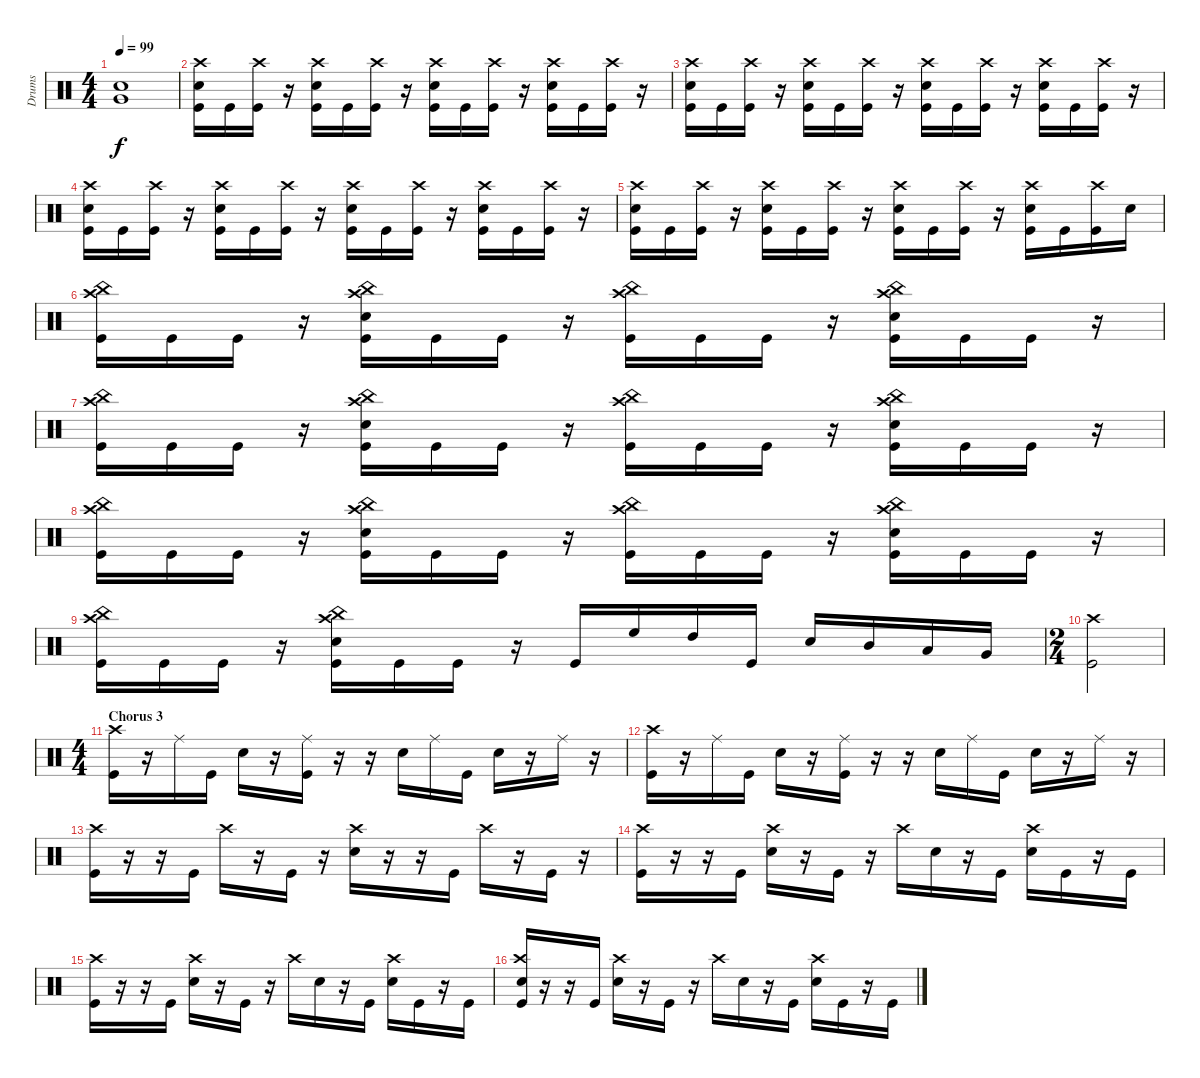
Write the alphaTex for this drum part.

\track ("Drums" "Drums") {instrument percussion}
\staff {score}
\articulation defaults
\ts (4 4)
\tempo 99
\clef neutral
\ks c
("Very Low Tom (hit)" "Electric Snare (hit)").1{dy f} |
("Crash high (hit)" "Electric Snare (hit)" "Kick (hit)").16{volume 15} "Kick (hit)".16 ("Crash high (hit)" "Kick (hit)").16 r.16 ("Crash high (hit)" "Electric Snare (hit)" "Kick (hit)").16 "Kick (hit)".16 ("Crash high (hit)" "Kick (hit)").16 r.16 ("Crash high (hit)" "Electric Snare (hit)" "Kick (hit)").16 "Kick (hit)".16 ("Crash high (hit)" "Kick (hit)").16 r.16 ("Crash high (hit)" "Electric Snare (hit)" "Kick (hit)").16 "Kick (hit)".16 ("Crash high (hit)" "Kick (hit)").16 r.16 |
("Crash high (hit)" "Electric Snare (hit)" "Kick (hit)").16 "Kick (hit)".16 ("Crash high (hit)" "Kick (hit)").16 r.16 ("Crash high (hit)" "Electric Snare (hit)" "Kick (hit)").16 "Kick (hit)".16 ("Crash high (hit)" "Kick (hit)").16 r.16 ("Crash high (hit)" "Electric Snare (hit)" "Kick (hit)").16 "Kick (hit)".16 ("Crash high (hit)" "Kick (hit)").16 r.16 ("Crash high (hit)" "Electric Snare (hit)" "Kick (hit)").16 "Kick (hit)".16 ("Crash high (hit)" "Kick (hit)").16 r.16 |
("Crash high (hit)" "Electric Snare (hit)" "Kick (hit)").16 "Kick (hit)".16 ("Crash high (hit)" "Kick (hit)").16 r.16 ("Crash high (hit)" "Electric Snare (hit)" "Kick (hit)").16 "Kick (hit)".16 ("Crash high (hit)" "Kick (hit)").16 r.16 ("Crash high (hit)" "Electric Snare (hit)" "Kick (hit)").16 "Kick (hit)".16 ("Crash high (hit)" "Kick (hit)").16 r.16 ("Crash high (hit)" "Electric Snare (hit)" "Kick (hit)").16 "Kick (hit)".16 ("Crash high (hit)" "Kick (hit)").16 r.16 |
("Crash high (hit)" "Electric Snare (hit)" "Kick (hit)").16 "Kick (hit)".16 ("Crash high (hit)" "Kick (hit)").16 r.16 ("Crash high (hit)" "Electric Snare (hit)" "Kick (hit)").16 "Kick (hit)".16 ("Crash high (hit)" "Kick (hit)").16 r.16 ("Crash high (hit)" "Electric Snare (hit)" "Kick (hit)").16 "Kick (hit)".16 ("Crash high (hit)" "Kick (hit)").16 r.16 ("Crash high (hit)" "Electric Snare (hit)" "Kick (hit)").16 "Kick (hit)".16 ("Crash high (hit)" "Kick (hit)").16 "Electric Snare (hit)".16 |
("China (hit)" "Crash high (hit)" "Kick (hit)").16 "Kick (hit)".16 "Kick (hit)".16 r.16 ("China (hit)" "Crash high (hit)" "Electric Snare (hit)" "Kick (hit)").16 "Kick (hit)".16 "Kick (hit)".16 r.16 ("China (hit)" "Crash high (hit)" "Kick (hit)").16 "Kick (hit)".16 "Kick (hit)".16 r.16 ("China (hit)" "Crash high (hit)" "Electric Snare (hit)" "Kick (hit)").16 "Kick (hit)".16 "Kick (hit)".16 r.16 |
("China (hit)" "Crash high (hit)" "Kick (hit)").16 "Kick (hit)".16 "Kick (hit)".16 r.16 ("China (hit)" "Crash high (hit)" "Electric Snare (hit)" "Kick (hit)").16 "Kick (hit)".16 "Kick (hit)".16 r.16 ("China (hit)" "Crash high (hit)" "Kick (hit)").16 "Kick (hit)".16 "Kick (hit)".16 r.16 ("China (hit)" "Crash high (hit)" "Electric Snare (hit)" "Kick (hit)").16 "Kick (hit)".16 "Kick (hit)".16 r.16 |
("China (hit)" "Crash high (hit)" "Kick (hit)").16 "Kick (hit)".16 "Kick (hit)".16 r.16 ("China (hit)" "Crash high (hit)" "Electric Snare (hit)" "Kick (hit)").16 "Kick (hit)".16 "Kick (hit)".16 r.16 ("China (hit)" "Crash high (hit)" "Kick (hit)").16 "Kick (hit)".16 "Kick (hit)".16 r.16 ("China (hit)" "Crash high (hit)" "Electric Snare (hit)" "Kick (hit)").16 "Kick (hit)".16 "Kick (hit)".16 r.16 |
("China (hit)" "Crash high (hit)" "Kick (hit)").16 "Kick (hit)".16 "Kick (hit)".16 r.16 ("China (hit)" "Crash high (hit)" "Electric Snare (hit)" "Kick (hit)").16 "Kick (hit)".16 "Kick (hit)".16 r.16 "Kick (hit)".16 "High Floor Tom (hit)".16 "High Tom (hit)".16 "Kick (hit)".16 "Electric Snare (hit)".16 "Mid Tom (hit)".16 "Low Tom (hit)".16 "Very Low Tom (hit)".16 |
\ts (2 4)
("Crash high (hit)" "Kick (hit)").2 |
\ts (4 4)
\section ("" "Chorus 3")
("Kick (hit)" "Crash high (hit)").16 r.16 "Ride (middle)".16 "Kick (hit)".16 "Electric Snare (hit)".16 r.16 ("Kick (hit)" "Ride (middle)").16 r.16 r.16 "Electric Snare (hit)".16 "Ride (middle)".16 "Kick (hit)".16 "Electric Snare (hit)".16 r.16 "Ride (middle)".16 r.16 |
("Kick (hit)" "Crash high (hit)").16 r.16 "Ride (middle)".16 "Kick (hit)".16 "Electric Snare (hit)".16 r.16 ("Kick (hit)" "Ride (middle)").16 r.16 r.16 "Electric Snare (hit)".16 "Ride (middle)".16 "Kick (hit)".16 "Electric Snare (hit)".16 r.16 "Ride (middle)".16 r.16 |
("Kick (hit)" "Crash high (hit)").16 r.16 r.16 "Kick (hit)".16 "Crash high (hit)".16 r.16 "Kick (hit)".16 r.16 ("Electric Snare (hit)" "Crash high (hit)").16 r.16 r.16 "Kick (hit)".16 "Crash high (hit)".16 r.16 "Kick (hit)".16 r.16 |
("Kick (hit)" "Crash high (hit)").16 r.16 r.16 "Kick (hit)".16 ("Electric Snare (hit)" "Crash high (hit)").16 r.16 "Kick (hit)".16 r.16 "Crash high (hit)".16 "Electric Snare (hit)".16 r.16 "Kick (hit)".16 ("Electric Snare (hit)" "Crash high (hit)").16 "Kick (hit)".16 r.16 "Kick (hit)".16 |
("Kick (hit)" "Crash high (hit)").16 r.16 r.16 "Kick (hit)".16 ("Electric Snare (hit)" "Crash high (hit)").16 r.16 "Kick (hit)".16 r.16 "Crash high (hit)".16 "Electric Snare (hit)".16 r.16 "Kick (hit)".16 ("Electric Snare (hit)" "Crash high (hit)").16 "Kick (hit)".16 r.16 "Kick (hit)".16 |
("Kick (hit)" "Electric Snare (hit)" "Crash high (hit)").16 r.16 r.16 "Kick (hit)".16 ("Electric Snare (hit)" "Crash high (hit)").16 r.16 "Kick (hit)".16 r.16 "Crash high (hit)".16 "Electric Snare (hit)".16 r.16 "Kick (hit)".16 ("Electric Snare (hit)" "Crash high (hit)").16 "Kick (hit)".16 r.16 "Kick (hit)".16
